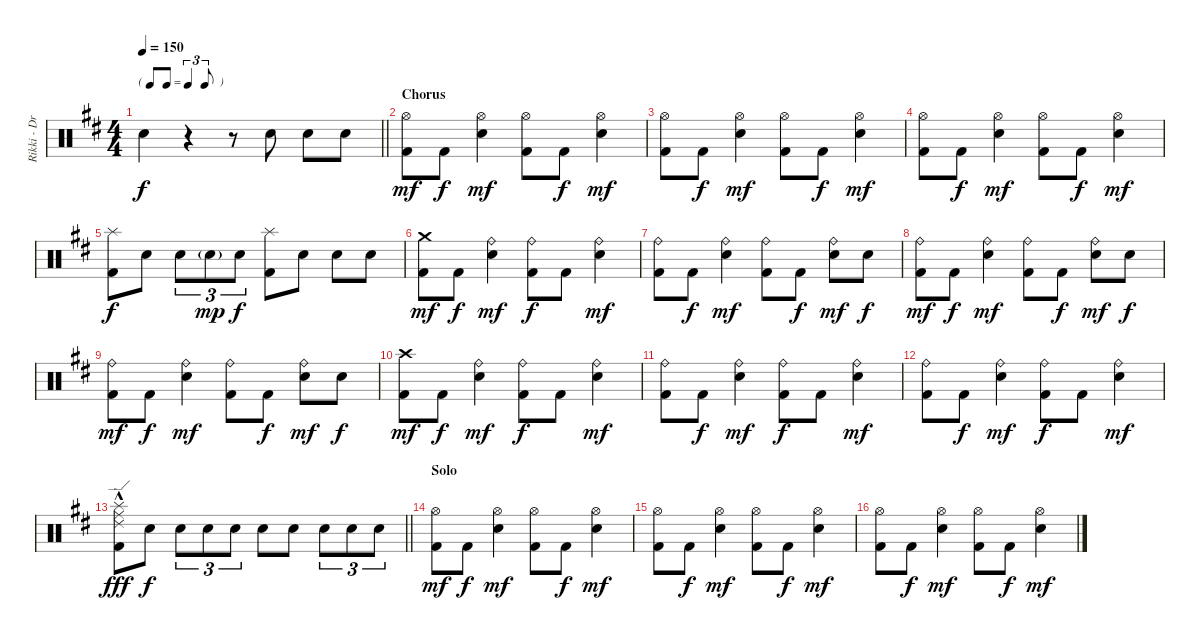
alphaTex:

\track ("Rikki - Drums" "Rikki - Dr") {instrument percussion}
\staff {score}
\articulation defaults
\ts (4 4)
\tf triplet8th
\tempo 150
\clef neutral
\barLineRight lightlight
\ks d "Snare (hit) 2".4{dy f}
r.4 r.8 "Snare (hit) 2".8 "Snare (hit) 2".8 "Snare (hit) 2".8 |
\section ("" "Chorus")
("Hi-Hat (open)" "Kick (hit) 2").8{dy mf} "Kick (hit) 2".8{dy f} ("Hi-Hat (open)" "Snare (hit) 2").4{dy mf} ("Hi-Hat (open)" "Kick (hit) 2").8 "Kick (hit) 2".8{dy f} ("Hi-Hat (open)" "Snare (hit) 2").4{dy mf} |
("Hi-Hat (open)" "Kick (hit) 2").8 "Kick (hit) 2".8{dy f} ("Hi-Hat (open)" "Snare (hit) 2").4{dy mf} ("Hi-Hat (open)" "Kick (hit) 2").8 "Kick (hit) 2".8{dy f} ("Hi-Hat (open)" "Snare (hit) 2").4{dy mf} |
("Hi-Hat (open)" "Kick (hit) 2").8 "Kick (hit) 2".8{dy f} ("Hi-Hat (open)" "Snare (hit) 2").4{dy mf} ("Hi-Hat (open)" "Kick (hit) 2").8 "Kick (hit) 2".8{dy f} ("Hi-Hat (open)" "Snare (hit) 2").4{dy mf} |
("Splash (hit)" "Kick (hit) 2").8{dy f} "Snare (hit) 2".8 "Snare (hit) 2".8{tu (3 2)} "Snare (hit) 2"{g}.8{tu (3 2) dy mp} "Snare (hit) 2".8{tu (3 2) dy f} ("Splash (hit)" "Kick (hit) 2").8 "Snare (hit) 2".8 "Snare (hit) 2".8 "Snare (hit) 2".8 |
("Crash medium (hit)" "Kick (hit) 2").8{dy mf} "Kick (hit) 2".8{dy f} ("Ride (bell)" "Snare (hit) 2").4{dy mf} ("Ride (bell)" "Kick (hit) 2").8{dy f} "Kick (hit) 2".8 ("Ride (bell)" "Snare (hit) 2").4{dy mf} |
("Ride (bell)" "Kick (hit) 2").8 "Kick (hit) 2".8{dy f} ("Ride (bell)" "Snare (hit) 2").4{dy mf} ("Ride (bell)" "Kick (hit) 2").8 "Kick (hit) 2".8{dy f} ("Ride (bell)" "Snare (hit) 2").8{dy mf} "Snare (hit) 2".8{dy f} |
("Ride (bell)" "Kick (hit) 2").8{dy mf} "Kick (hit) 2".8{dy f} ("Ride (bell)" "Snare (hit) 2").4{dy mf} ("Ride (bell)" "Kick (hit) 2").8 "Kick (hit) 2".8{dy f} ("Ride (bell)" "Snare (hit) 2").8{dy mf} "Snare (hit) 2".8{dy f} |
("Ride (bell)" "Kick (hit) 2").8{dy mf} "Kick (hit) 2".8{dy f} ("Ride (bell)" "Snare (hit) 2").4{dy mf} ("Ride (bell)" "Kick (hit) 2").8 "Kick (hit) 2".8{dy f} ("Ride (bell)" "Snare (hit) 2").8{dy mf} "Snare (hit) 2".8{dy f} |
("Crash high (hit)" "Kick (hit) 2").8{dy mf} "Kick (hit) 2".8{dy f} ("Ride (bell)" "Snare (hit) 2").4{dy mf} ("Ride (bell)" "Kick (hit) 2").8{dy f} "Kick (hit) 2".8 ("Ride (bell)" "Snare (hit) 2").4{dy mf} |
("Ride (bell)" "Kick (hit) 2").8 "Kick (hit) 2".8{dy f} ("Ride (bell)" "Snare (hit) 2").4{dy mf} ("Ride (bell)" "Kick (hit) 2").8{dy f} "Kick (hit) 2".8 ("Ride (bell)" "Snare (hit) 2").4{dy mf} |
("Ride (bell)" "Kick (hit) 2").8 "Kick (hit) 2".8{dy f} ("Ride (bell)" "Snare (hit) 2").4{dy mf} ("Ride (bell)" "Kick (hit) 2").8{dy f} "Kick (hit) 2".8 ("Ride (bell)" "Snare (hit) 2").4{dy mf} |
\barLineRight lightlight
("Ride (edge) 2"{hac} "Ride (middle)"{hac} "Splash (hit)" "Kick (hit) 2").8{dy fff} "Snare (hit) 2".8{dy f} "Snare (hit) 2".8{tu (3 2)} "Snare (hit) 2".8{tu (3 2)} "Snare (hit) 2".8{tu (3 2)} "Snare (hit) 2".8 "Snare (hit) 2".8 "Snare (hit) 2".8{tu (3 2)} "Snare (hit) 2".8{tu (3 2)} "Snare (hit) 2".8{tu (3 2)} |
\section ("" "Solo")
("Hi-Hat (open)" "Kick (hit) 2").8{dy mf} "Kick (hit) 2".8{dy f} ("Hi-Hat (open)" "Snare (hit) 2").4{dy mf} ("Hi-Hat (open)" "Kick (hit) 2").8 "Kick (hit) 2".8{dy f} ("Hi-Hat (open)" "Snare (hit) 2").4{dy mf} |
("Hi-Hat (open)" "Kick (hit) 2").8 "Kick (hit) 2".8{dy f} ("Hi-Hat (open)" "Snare (hit) 2").4{dy mf} ("Hi-Hat (open)" "Kick (hit) 2").8 "Kick (hit) 2".8{dy f} ("Hi-Hat (open)" "Snare (hit) 2").4{dy mf} |
("Hi-Hat (open)" "Kick (hit) 2").8 "Kick (hit) 2".8{dy f} ("Hi-Hat (open)" "Snare (hit) 2").4{dy mf} ("Hi-Hat (open)" "Kick (hit) 2").8 "Kick (hit) 2".8{dy f} ("Hi-Hat (open)" "Snare (hit) 2").4{dy mf}
